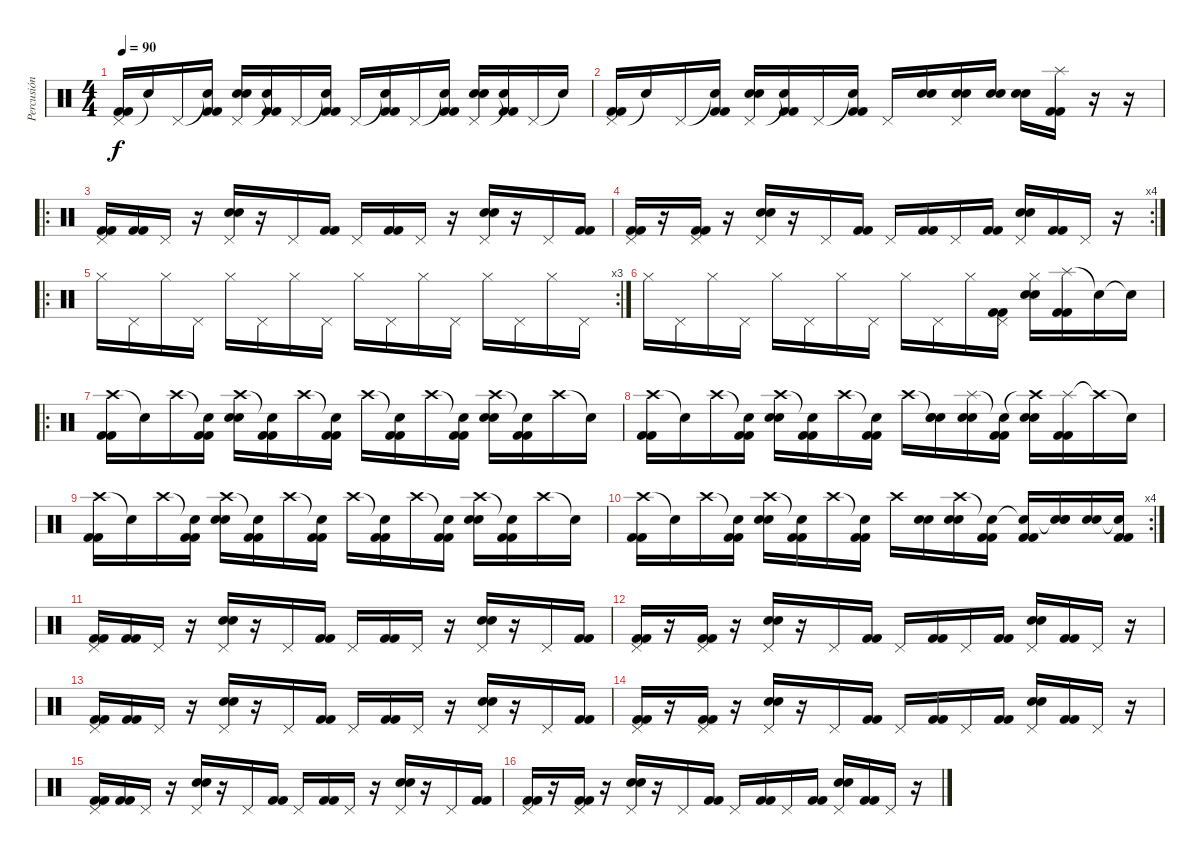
\track ("Percusión" "Percusión") {instrument percussion}
\staff {score}
\articulation defaults
\ts (4 4)
\tempo 90
\clef neutral
\ks c
("Pedal Hi-Hat (hit)" "Kick (hit) 2" "Kick (hit) 2").16{dy f} "Snare (hit)"{t}.16 "Pedal Hi-Hat (hit)".16 ("Snare (hit)"{t} "Kick (hit) 2" "Kick (hit) 2").16 ("Pedal Hi-Hat (hit)" "Electric Snare (hit)" "Electric Snare (hit)").16 ("Snare (hit)"{t} "Kick (hit) 2" "Kick (hit) 2").16 "Pedal Hi-Hat (hit)".16 ("Snare (hit)"{t} "Kick (hit) 2" "Kick (hit) 2").16 "Pedal Hi-Hat (hit)".16 ("Snare (hit)"{t} "Kick (hit) 2" "Kick (hit) 2").16 "Pedal Hi-Hat (hit)".16 ("Snare (hit)"{t} "Kick (hit) 2" "Kick (hit) 2").16 ("Pedal Hi-Hat (hit)" "Electric Snare (hit)" "Electric Snare (hit)").16 ("Snare (hit)"{t} "Kick (hit) 2" "Kick (hit) 2").16 "Pedal Hi-Hat (hit)".16 "Snare (hit)"{t}.16 |
("Pedal Hi-Hat (hit)" "Kick (hit) 2" "Kick (hit) 2").16 "Snare (hit)"{t}.16 "Pedal Hi-Hat (hit)".16 ("Snare (hit)"{t} "Kick (hit) 2" "Kick (hit) 2").16 ("Pedal Hi-Hat (hit)" "Electric Snare (hit)" "Electric Snare (hit)").16 ("Snare (hit)"{t} "Kick (hit) 2" "Kick (hit) 2").16 "Pedal Hi-Hat (hit)".16 ("Snare (hit)"{t} "Kick (hit) 2" "Kick (hit) 2").16 "Pedal Hi-Hat (hit)".16 ("Electric Snare (hit)" "Electric Snare (hit)").16 ("Pedal Hi-Hat (hit)" "Electric Snare (hit)" "Electric Snare (hit)").16 ("Electric Snare (hit)" "Electric Snare (hit)").16 ("Electric Snare (hit)" "Electric Snare (hit)").16 ("Splash (hit)" "Kick (hit) 2" "Kick (hit) 2").16 r.16 r.16 |
\ro
("Pedal Hi-Hat (hit)" "Kick (hit) 2" "Kick (hit) 2").16 ("Kick (hit) 2" "Kick (hit) 2").16 "Pedal Hi-Hat (hit)".16 r.16 ("Pedal Hi-Hat (hit)" "Electric Snare (hit)" "Electric Snare (hit)").16 r.16 "Pedal Hi-Hat (hit)".16 ("Kick (hit) 2" "Kick (hit) 2").16 "Pedal Hi-Hat (hit)".16 ("Kick (hit) 2" "Kick (hit) 2").16 "Pedal Hi-Hat (hit)".16 r.16 ("Pedal Hi-Hat (hit)" "Electric Snare (hit)" "Electric Snare (hit)").16 r.16 "Pedal Hi-Hat (hit)".16 ("Kick (hit) 2" "Kick (hit) 2").16 |
\rc 4
("Pedal Hi-Hat (hit)" "Kick (hit) 2" "Kick (hit) 2").16 r.16 ("Pedal Hi-Hat (hit)" "Kick (hit) 2" "Kick (hit) 2").16 r.16 ("Pedal Hi-Hat (hit)" "Electric Snare (hit)" "Electric Snare (hit)").16 r.16 "Pedal Hi-Hat (hit)".16 ("Kick (hit) 2" "Kick (hit) 2").16 "Pedal Hi-Hat (hit)".16 ("Kick (hit) 2" "Kick (hit) 2").16 "Pedal Hi-Hat (hit)".16 ("Kick (hit) 2" "Kick (hit) 2").16 ("Pedal Hi-Hat (hit)" "Electric Snare (hit)" "Electric Snare (hit)").16 ("Kick (hit) 2" "Kick (hit) 2").16 "Pedal Hi-Hat (hit)".16 r.16 |
\ro
\rc 3 "Hi-Hat (closed)".16 "Pedal Hi-Hat (hit)".16 "Hi-Hat (closed)".16 "Pedal Hi-Hat (hit)".16 "Hi-Hat (closed)".16 "Pedal Hi-Hat (hit)".16 "Hi-Hat (closed)".16 "Pedal Hi-Hat (hit)".16 "Hi-Hat (closed)".16 "Pedal Hi-Hat (hit)".16 "Hi-Hat (closed)".16 "Pedal Hi-Hat (hit)".16 "Hi-Hat (closed)".16 "Pedal Hi-Hat (hit)".16 "Hi-Hat (closed)".16 "Pedal Hi-Hat (hit)".16
|
"Hi-Hat (closed)".16 "Pedal Hi-Hat (hit)".16 "Hi-Hat (closed)".16 "Pedal Hi-Hat (hit)".16 "Hi-Hat (closed)".16 "Pedal Hi-Hat (hit)".16 "Hi-Hat (closed)".16 "Pedal Hi-Hat (hit)".16 "Hi-Hat (closed)".16 "Pedal Hi-Hat (hit)".16 "Hi-Hat (closed)".16 ("Pedal Hi-Hat (hit)" "Kick (hit) 2" "Kick (hit) 2").16 ("Hi-Hat (closed)" "Electric Snare (hit)" "Electric Snare (hit)").16 ("Splash (hit)" "Kick (hit) 2" "Kick (hit) 2").16 "Snare (hit)"{t}.16 "Snare (hit)"{t}.16 |
\ro
("Crash high (hit)" "Kick (hit) 2" "Kick (hit) 2").16 "Snare (hit)"{t}.16 "Crash high (hit)".16 ("Snare (hit)"{t} "Kick (hit) 2" "Kick (hit) 2").16 ("Crash high (hit)" "Electric Snare (hit)" "Electric Snare (hit)").16 ("Snare (hit)"{t} "Kick (hit) 2" "Kick (hit) 2").16 "Crash high (hit)".16 ("Snare (hit)"{t} "Kick (hit) 2" "Kick (hit) 2").16 "Crash high (hit)".16 ("Snare (hit)"{t} "Kick (hit) 2" "Kick (hit) 2").16 "Crash high (hit)".16 ("Snare (hit)"{t} "Kick (hit) 2" "Kick (hit) 2").16 ("Crash high (hit)" "Electric Snare (hit)" "Electric Snare (hit)").16 ("Snare (hit)"{t} "Kick (hit) 2" "Kick (hit) 2").16 "Crash high (hit)".16 "Snare (hit)"{t}.16 |
("Crash high (hit)" "Kick (hit) 2" "Kick (hit) 2").16 "Snare (hit)"{t}.16 "Crash high (hit)".16 ("Snare (hit)"{t} "Kick (hit) 2" "Kick (hit) 2").16 ("Crash high (hit)" "Electric Snare (hit)" "Electric Snare (hit)").16 ("Snare (hit)"{t} "Kick (hit) 2" "Kick (hit) 2").16 "Crash high (hit)".16 ("Snare (hit)"{t} "Kick (hit) 2" "Kick (hit) 2").16 "Crash high (hit)".16 ("Snare (hit)"{t} "Electric Snare (hit)" "Electric Snare (hit)").16 ("Splash (hit)" "Electric Snare (hit)" "Electric Snare (hit)").16 ("Snare (hit)"{t} "Kick (hit) 2" "Kick (hit) 2").16 ("Crash high (hit)"{t} "Electric Snare (hit)" "Electric Snare (hit)").16 ("Splash (hit)" "Kick (hit) 2" "Kick (hit) 2").16 "Crash high (hit)"{t}.16 "Snare (hit)"{t}.16 |
("Crash high (hit)" "Kick (hit) 2" "Kick (hit) 2").16 "Snare (hit)"{t}.16 "Crash high (hit)".16 ("Snare (hit)"{t} "Kick (hit) 2" "Kick (hit) 2").16 ("Crash high (hit)" "Electric Snare (hit)" "Electric Snare (hit)").16 ("Snare (hit)"{t} "Kick (hit) 2" "Kick (hit) 2").16 "Crash high (hit)".16 ("Snare (hit)"{t} "Kick (hit) 2" "Kick (hit) 2").16 "Crash high (hit)".16 ("Snare (hit)"{t} "Kick (hit) 2" "Kick (hit) 2").16 "Crash high (hit)".16 ("Snare (hit)"{t} "Kick (hit) 2" "Kick (hit) 2").16 ("Crash high (hit)" "Electric Snare (hit)" "Electric Snare (hit)").16 ("Snare (hit)"{t} "Kick (hit) 2" "Kick (hit) 2").16 "Crash high (hit)".16 "Snare (hit)"{t}.16 |
\rc 4
("Crash high (hit)" "Kick (hit) 2" "Kick (hit) 2").16 "Snare (hit)"{t}.16 "Crash high (hit)".16 ("Snare (hit)"{t} "Kick (hit) 2" "Kick (hit) 2").16 ("Crash high (hit)" "Electric Snare (hit)" "Electric Snare (hit)").16 ("Snare (hit)"{t} "Kick (hit) 2" "Kick (hit) 2").16 "Crash high (hit)".16 ("Snare (hit)"{t} "Kick (hit) 2" "Kick (hit) 2").16 "Crash high (hit)".16 ("Electric Snare (hit)" "Electric Snare (hit)").16 ("Crash high (hit)" "Electric Snare (hit)" "Electric Snare (hit)").16 ("Snare (hit)"{t} "Kick (hit) 2" "Kick (hit) 2").16 ("Snare (hit)"{t} "Kick (hit) 2" "Kick (hit) 2").16 ("Snare (hit)"{t} "Electric Snare (hit)" "Electric Snare (hit)").16 ("Electric Snare (hit)" "Electric Snare (hit)").16 ("Snare (hit)"{t} "Kick (hit) 2" "Kick (hit) 2").16 |
("Pedal Hi-Hat (hit)" "Kick (hit) 2" "Kick (hit) 2").16 ("Kick (hit) 2" "Kick (hit) 2").16 "Pedal Hi-Hat (hit)".16 r.16 ("Pedal Hi-Hat (hit)" "Electric Snare (hit)" "Electric Snare (hit)").16 r.16 "Pedal Hi-Hat (hit)".16 ("Kick (hit) 2" "Kick (hit) 2").16 "Pedal Hi-Hat (hit)".16 ("Kick (hit) 2" "Kick (hit) 2").16 "Pedal Hi-Hat (hit)".16 r.16 ("Pedal Hi-Hat (hit)" "Electric Snare (hit)" "Electric Snare (hit)").16 r.16 "Pedal Hi-Hat (hit)".16 ("Kick (hit) 2" "Kick (hit) 2").16 |
("Pedal Hi-Hat (hit)" "Kick (hit) 2" "Kick (hit) 2").16{volume 12} r.16 ("Pedal Hi-Hat (hit)" "Kick (hit) 2" "Kick (hit) 2").16 r.16 ("Pedal Hi-Hat (hit)" "Electric Snare (hit)" "Electric Snare (hit)").16 r.16 "Pedal Hi-Hat (hit)".16 ("Kick (hit) 2" "Kick (hit) 2").16 "Pedal Hi-Hat (hit)".16{volume 10} ("Kick (hit) 2" "Kick (hit) 2").16 "Pedal Hi-Hat (hit)".16 ("Kick (hit) 2" "Kick (hit) 2").16 ("Pedal Hi-Hat (hit)" "Electric Snare (hit)" "Electric Snare (hit)").16 ("Kick (hit) 2" "Kick (hit) 2").16 "Pedal Hi-Hat (hit)".16 r.16 |
("Pedal Hi-Hat (hit)" "Kick (hit) 2" "Kick (hit) 2").16{volume 9} ("Kick (hit) 2" "Kick (hit) 2").16 "Pedal Hi-Hat (hit)".16 r.16 ("Pedal Hi-Hat (hit)" "Electric Snare (hit)" "Electric Snare (hit)").16 r.16 "Pedal Hi-Hat (hit)".16 ("Kick (hit) 2" "Kick (hit) 2").16 "Pedal Hi-Hat (hit)".16{volume 8} ("Kick (hit) 2" "Kick (hit) 2").16 "Pedal Hi-Hat (hit)".16 r.16 ("Pedal Hi-Hat (hit)" "Electric Snare (hit)" "Electric Snare (hit)").16 r.16 "Pedal Hi-Hat (hit)".16 ("Kick (hit) 2" "Kick (hit) 2").16 |
("Pedal Hi-Hat (hit)" "Kick (hit) 2" "Kick (hit) 2").16{volume 7} r.16 ("Pedal Hi-Hat (hit)" "Kick (hit) 2" "Kick (hit) 2").16 r.16 ("Pedal Hi-Hat (hit)" "Electric Snare (hit)" "Electric Snare (hit)").16 r.16 "Pedal Hi-Hat (hit)".16 ("Kick (hit) 2" "Kick (hit) 2").16 "Pedal Hi-Hat (hit)".16{volume 6} ("Kick (hit) 2" "Kick (hit) 2").16 "Pedal Hi-Hat (hit)".16 ("Kick (hit) 2" "Kick (hit) 2").16 ("Pedal Hi-Hat (hit)" "Electric Snare (hit)" "Electric Snare (hit)").16 ("Kick (hit) 2" "Kick (hit) 2").16 "Pedal Hi-Hat (hit)".16 r.16 |
("Pedal Hi-Hat (hit)" "Kick (hit) 2" "Kick (hit) 2").16{volume 5} ("Kick (hit) 2" "Kick (hit) 2").16 "Pedal Hi-Hat (hit)".16 r.16 ("Pedal Hi-Hat (hit)" "Electric Snare (hit)" "Electric Snare (hit)").16 r.16 "Pedal Hi-Hat (hit)".16 ("Kick (hit) 2" "Kick (hit) 2").16 "Pedal Hi-Hat (hit)".16{volume 4} ("Kick (hit) 2" "Kick (hit) 2").16 "Pedal Hi-Hat (hit)".16 r.16 ("Pedal Hi-Hat (hit)" "Electric Snare (hit)" "Electric Snare (hit)").16 r.16 "Pedal Hi-Hat (hit)".16 ("Kick (hit) 2" "Kick (hit) 2").16 |
("Pedal Hi-Hat (hit)" "Kick (hit) 2" "Kick (hit) 2").16{volume 3} r.16 ("Pedal Hi-Hat (hit)" "Kick (hit) 2" "Kick (hit) 2").16 r.16 ("Pedal Hi-Hat (hit)" "Electric Snare (hit)" "Electric Snare (hit)").16 r.16 "Pedal Hi-Hat (hit)".16 ("Kick (hit) 2" "Kick (hit) 2").16 "Pedal Hi-Hat (hit)".16 ("Kick (hit) 2" "Kick (hit) 2").16 "Pedal Hi-Hat (hit)".16 ("Kick (hit) 2" "Kick (hit) 2").16 ("Pedal Hi-Hat (hit)" "Electric Snare (hit)" "Electric Snare (hit)").16 ("Kick (hit) 2" "Kick (hit) 2").16 "Pedal Hi-Hat (hit)".16 r.16
